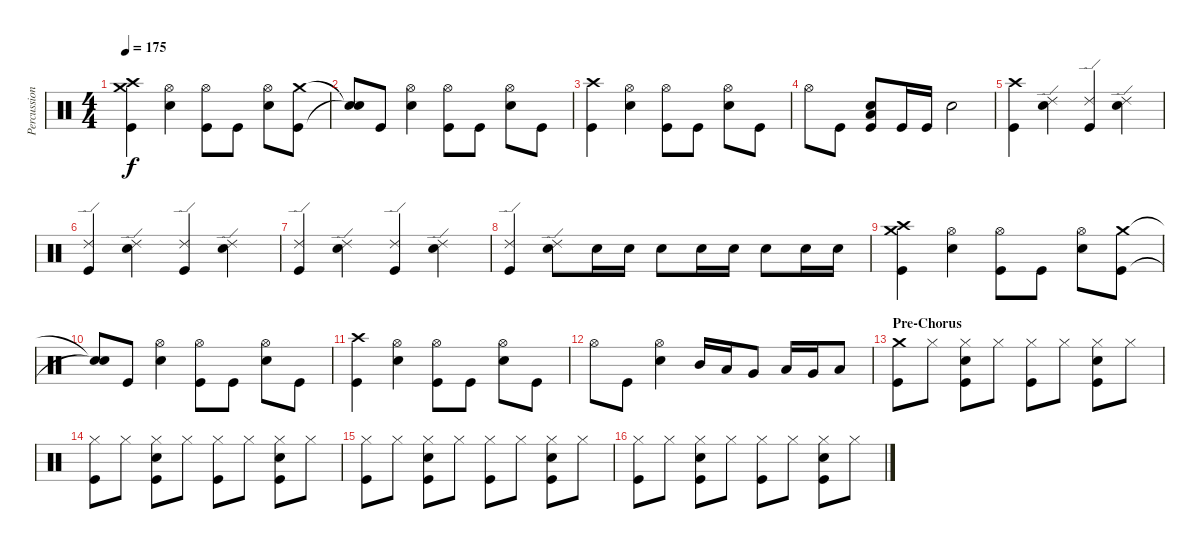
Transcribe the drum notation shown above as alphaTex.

\track ("Percussion" "Percussion") {instrument percussion}
\staff {score}
\articulation defaults
\ts (4 4)
\tempo 175
\clef neutral
\ks c
("Crash high (hit)" "Crash medium (hit)" "Kick (hit)").4{dy f} ("Hi-Hat (open)" "Electric Snare (hit)").4 ("Hi-Hat (open)" "Kick (hit)").8 "Kick (hit)".8 ("Hi-Hat (open)" "Electric Snare (hit)").8 ("Crash medium (hit)" "Kick (hit)").8 |
("Snare (hit)"{t} "Snare (hit)"{t}).8 "Kick (hit)".8 ("Hi-Hat (open)" "Electric Snare (hit)").4 ("Hi-Hat (open)" "Kick (hit)").8 "Kick (hit)".8 ("Hi-Hat (open)" "Electric Snare (hit)").8 "Kick (hit)".8 |
("Crash high (hit)" "Kick (hit)").4 ("Hi-Hat (open)" "Electric Snare (hit)").4 ("Hi-Hat (open)" "Kick (hit)").8 "Kick (hit)".8 ("Hi-Hat (open)" "Electric Snare (hit)").8 "Kick (hit)".8 |
"Hi-Hat (open)".8 "Kick (hit)".8 ("Electric Snare (hit)" "Low Tom (hit)" "Kick (hit)").8 "Kick (hit)".16 "Kick (hit)".16 "Electric Snare (hit)".2 |
("Crash high (hit)" "Kick (hit)").4 ("Ride (edge) 2" "Electric Snare (hit)").4 ("Ride (edge) 2" "Kick (hit)").4 ("Ride (edge) 2" "Electric Snare (hit)").4 |
("Ride (edge) 2" "Kick (hit)").4 ("Ride (edge) 2" "Electric Snare (hit)").4 ("Ride (edge) 2" "Kick (hit)").4 ("Ride (edge) 2" "Electric Snare (hit)").4 |
("Ride (edge) 2" "Kick (hit)").4 ("Ride (edge) 2" "Electric Snare (hit)").4 ("Ride (edge) 2" "Kick (hit)").4 ("Ride (edge) 2" "Electric Snare (hit)").4 |
("Ride (edge) 2" "Kick (hit)").4 ("Ride (edge) 2" "Electric Snare (hit)").8 "Electric Snare (hit)".16 "Electric Snare (hit)".16 "Electric Snare (hit)".8 "Electric Snare (hit)".16 "Electric Snare (hit)".16 "Electric Snare (hit)".8 "Electric Snare (hit)".16 "Electric Snare (hit)".16 |
("Crash high (hit)" "Crash medium (hit)" "Kick (hit)").4 ("Hi-Hat (open)" "Electric Snare (hit)").4 ("Hi-Hat (open)" "Kick (hit)").8 "Kick (hit)".8 ("Hi-Hat (open)" "Electric Snare (hit)").8 ("Crash medium (hit)" "Kick (hit)").8 |
("Snare (hit)"{t} "Snare (hit)"{t}).8 "Kick (hit)".8 ("Hi-Hat (open)" "Electric Snare (hit)").4 ("Hi-Hat (open)" "Kick (hit)").8 "Kick (hit)".8 ("Hi-Hat (open)" "Electric Snare (hit)").8 "Kick (hit)".8 |
("Crash high (hit)" "Kick (hit)").4 ("Hi-Hat (open)" "Electric Snare (hit)").4 ("Hi-Hat (open)" "Kick (hit)").8 "Kick (hit)".8 ("Hi-Hat (open)" "Electric Snare (hit)").8 "Kick (hit)".8 |
"Hi-Hat (open)".8 "Kick (hit)".8 ("Hi-Hat (open)" "Electric Snare (hit)").4 "Mid Tom (hit)".16 "Low Tom (hit)".16 "Very Low Tom (hit)".8 "Low Tom (hit)".16 "Very Low Tom (hit)".16 "Low Floor Tom (hit)".8 |
\section ("" "Pre-Chorus")
("Crash medium (hit)" "Kick (hit)").8 "Hi-Hat (closed)".8 ("Hi-Hat (closed)" "Electric Snare (hit)" "Kick (hit)").8 "Hi-Hat (closed)".8 ("Hi-Hat (closed)" "Kick (hit)").8 "Hi-Hat (closed)".8 ("Hi-Hat (closed)" "Electric Snare (hit)" "Kick (hit)").8 "Hi-Hat (closed)".8 |
("Hi-Hat (closed)" "Kick (hit)").8 "Hi-Hat (closed)".8 ("Hi-Hat (closed)" "Electric Snare (hit)" "Kick (hit)").8 "Hi-Hat (closed)".8 ("Hi-Hat (closed)" "Kick (hit)").8 "Hi-Hat (closed)".8 ("Hi-Hat (closed)" "Electric Snare (hit)" "Kick (hit)").8 "Hi-Hat (closed)".8 |
("Hi-Hat (closed)" "Kick (hit)").8 "Hi-Hat (closed)".8 ("Hi-Hat (closed)" "Electric Snare (hit)" "Kick (hit)").8 "Hi-Hat (closed)".8 ("Hi-Hat (closed)" "Kick (hit)").8 "Hi-Hat (closed)".8 ("Hi-Hat (closed)" "Electric Snare (hit)" "Kick (hit)").8 "Hi-Hat (closed)".8 |
("Hi-Hat (closed)" "Kick (hit)").8 "Hi-Hat (closed)".8 ("Hi-Hat (closed)" "Electric Snare (hit)" "Kick (hit)").8 "Hi-Hat (closed)".8 ("Hi-Hat (closed)" "Kick (hit)").8 "Hi-Hat (closed)".8 ("Hi-Hat (closed)" "Electric Snare (hit)" "Kick (hit)").8 "Hi-Hat (closed)".8
